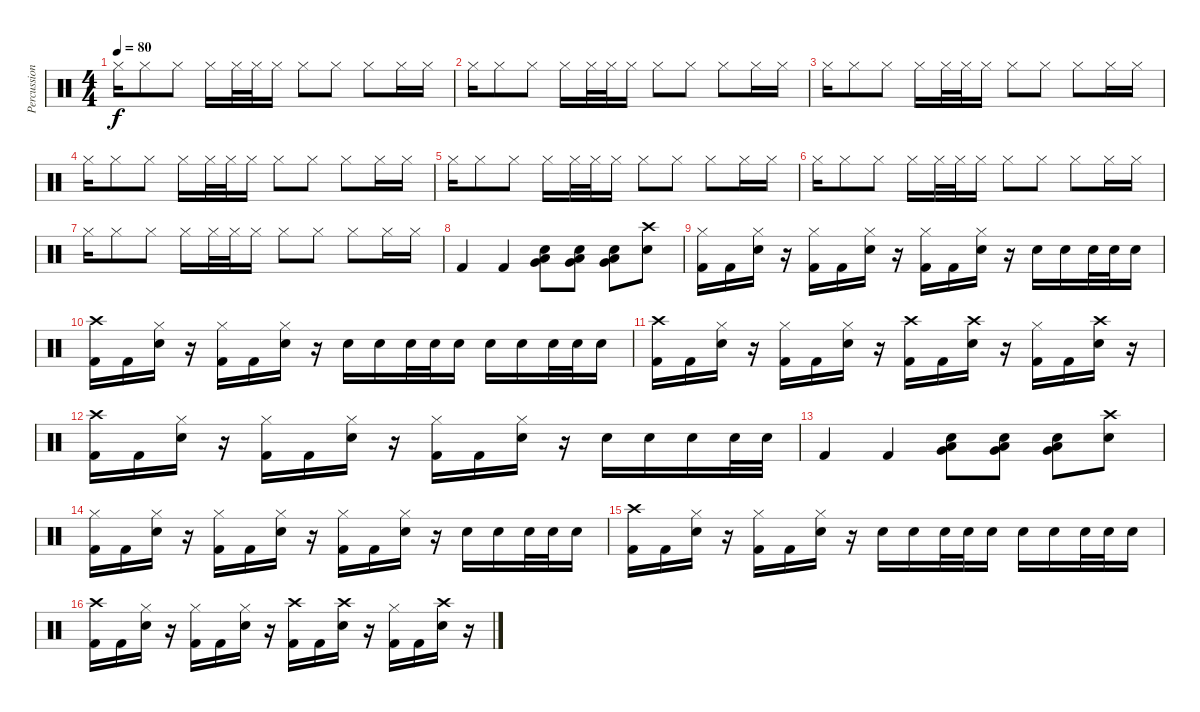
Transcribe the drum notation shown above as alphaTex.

\track ("Percussion" "Percussion") {instrument percussion}
\staff {score}
\articulation defaults
\ts (4 4)
\tempo 80
\clef neutral
\ks c "Hi-Hat (closed)".16{dy f} "Hi-Hat (closed)".8 "Hi-Hat (closed)".8 "Hi-Hat (closed)".16 "Hi-Hat (closed)".32 "Hi-Hat (closed)".32 "Hi-Hat (closed)".16 "Hi-Hat (closed)".8 "Hi-Hat (closed)".8 "Hi-Hat (closed)".8 "Hi-Hat (closed)".16 "Hi-Hat (closed)".16
|
"Hi-Hat (closed)".16 "Hi-Hat (closed)".8 "Hi-Hat (closed)".8 "Hi-Hat (closed)".16 "Hi-Hat (closed)".32 "Hi-Hat (closed)".32 "Hi-Hat (closed)".16 "Hi-Hat (closed)".8 "Hi-Hat (closed)".8 "Hi-Hat (closed)".8 "Hi-Hat (closed)".16 "Hi-Hat (closed)".16 |
"Hi-Hat (closed)".16 "Hi-Hat (closed)".8 "Hi-Hat (closed)".8 "Hi-Hat (closed)".16 "Hi-Hat (closed)".32 "Hi-Hat (closed)".32 "Hi-Hat (closed)".16 "Hi-Hat (closed)".8 "Hi-Hat (closed)".8 "Hi-Hat (closed)".8 "Hi-Hat (closed)".16 "Hi-Hat (closed)".16 |
"Hi-Hat (closed)".16 "Hi-Hat (closed)".8 "Hi-Hat (closed)".8 "Hi-Hat (closed)".16 "Hi-Hat (closed)".32 "Hi-Hat (closed)".32 "Hi-Hat (closed)".16 "Hi-Hat (closed)".8 "Hi-Hat (closed)".8 "Hi-Hat (closed)".8 "Hi-Hat (closed)".16 "Hi-Hat (closed)".16 |
"Hi-Hat (closed)".16 "Hi-Hat (closed)".8 "Hi-Hat (closed)".8 "Hi-Hat (closed)".16 "Hi-Hat (closed)".32 "Hi-Hat (closed)".32 "Hi-Hat (closed)".16 "Hi-Hat (closed)".8 "Hi-Hat (closed)".8 "Hi-Hat (closed)".8 "Hi-Hat (closed)".16 "Hi-Hat (closed)".16 |
"Hi-Hat (closed)".16 "Hi-Hat (closed)".8 "Hi-Hat (closed)".8 "Hi-Hat (closed)".16 "Hi-Hat (closed)".32 "Hi-Hat (closed)".32 "Hi-Hat (closed)".16 "Hi-Hat (closed)".8 "Hi-Hat (closed)".8 "Hi-Hat (closed)".8 "Hi-Hat (closed)".16 "Hi-Hat (closed)".16 |
"Hi-Hat (closed)".16 "Hi-Hat (closed)".8 "Hi-Hat (closed)".8 "Hi-Hat (closed)".16 "Hi-Hat (closed)".32 "Hi-Hat (closed)".32 "Hi-Hat (closed)".16 "Hi-Hat (closed)".8 "Hi-Hat (closed)".8 "Hi-Hat (closed)".8 "Hi-Hat (closed)".16 "Hi-Hat (closed)".16 |
"Kick (hit) 2".4 "Kick (hit) 2".4 ("Low Tom (hit)" "Very Low Tom (hit)" "Electric Snare (hit)").8 ("Low Tom (hit)" "Very Low Tom (hit)" "Electric Snare (hit)").8 ("Low Tom (hit)" "Very Low Tom (hit)" "Electric Snare (hit)").8 ("Crash high (hit)" "Electric Snare (hit)").8 |
("Hi-Hat (closed)" "Kick (hit) 2").16 "Kick (hit) 2".16 ("Hi-Hat (closed)" "Electric Snare (hit)").16 r.16 ("Hi-Hat (closed)" "Kick (hit) 2").16 "Kick (hit) 2".16 ("Hi-Hat (closed)" "Electric Snare (hit)").16 r.16 ("Hi-Hat (closed)" "Kick (hit) 2").16 "Kick (hit) 2".16 ("Hi-Hat (closed)" "Electric Snare (hit)").16 r.16 "Electric Snare (hit)".16 "Electric Snare (hit)".16 "Electric Snare (hit)".32 "Electric Snare (hit)".32 "Electric Snare (hit)".16 |
("Crash high (hit)" "Kick (hit) 2").16 "Kick (hit) 2".16 ("Hi-Hat (closed)" "Electric Snare (hit)").16 r.16 ("Hi-Hat (closed)" "Kick (hit) 2").16 "Kick (hit) 2".16 ("Hi-Hat (closed)" "Electric Snare (hit)").16 r.16 "Electric Snare (hit)".16 "Electric Snare (hit)".16 "Electric Snare (hit)".32 "Electric Snare (hit)".32 "Electric Snare (hit)".16 "Electric Snare (hit)".16 "Electric Snare (hit)".16 "Electric Snare (hit)".32 "Electric Snare (hit)".32 "Electric Snare (hit)".16 |
("Crash high (hit)" "Kick (hit) 2").16 "Kick (hit) 2".16 ("Hi-Hat (closed)" "Electric Snare (hit)").16 r.16 ("Hi-Hat (closed)" "Kick (hit) 2").16 "Kick (hit) 2".16 ("Hi-Hat (closed)" "Electric Snare (hit)").16 r.16 ("Crash high (hit)" "Kick (hit) 2").16 "Kick (hit) 2".16 ("Crash high (hit)" "Electric Snare (hit)").16 r.16 ("Hi-Hat (closed)" "Kick (hit) 2").16 "Kick (hit) 2".16 ("Crash high (hit)" "Electric Snare (hit)").16 r.16 |
("Crash high (hit)" "Kick (hit) 2").16 "Kick (hit) 2".16 ("Hi-Hat (closed)" "Electric Snare (hit)").16 r.16 ("Hi-Hat (closed)" "Kick (hit) 2").16 "Kick (hit) 2".16 ("Hi-Hat (closed)" "Electric Snare (hit)").16 r.16 ("Hi-Hat (closed)" "Kick (hit) 2").16 "Kick (hit) 2".16 ("Hi-Hat (closed)" "Electric Snare (hit)").16 r.16 "Electric Snare (hit)".16 "Electric Snare (hit)".16 "Electric Snare (hit)".16 "Electric Snare (hit)".32 "Electric Snare (hit)".32 |
"Kick (hit) 2".4 "Kick (hit) 2".4 ("Low Tom (hit)" "Very Low Tom (hit)" "Electric Snare (hit)").8 ("Low Tom (hit)" "Very Low Tom (hit)" "Electric Snare (hit)").8 ("Low Tom (hit)" "Very Low Tom (hit)" "Electric Snare (hit)").8 ("Crash high (hit)" "Electric Snare (hit)").8 |
("Hi-Hat (closed)" "Kick (hit) 2").16 "Kick (hit) 2".16 ("Hi-Hat (closed)" "Electric Snare (hit)").16 r.16 ("Hi-Hat (closed)" "Kick (hit) 2").16 "Kick (hit) 2".16 ("Hi-Hat (closed)" "Electric Snare (hit)").16 r.16 ("Hi-Hat (closed)" "Kick (hit) 2").16 "Kick (hit) 2".16 ("Hi-Hat (closed)" "Electric Snare (hit)").16 r.16 "Electric Snare (hit)".16 "Electric Snare (hit)".16 "Electric Snare (hit)".32 "Electric Snare (hit)".32 "Electric Snare (hit)".16 |
("Crash high (hit)" "Kick (hit) 2").16 "Kick (hit) 2".16 ("Hi-Hat (closed)" "Electric Snare (hit)").16 r.16 ("Hi-Hat (closed)" "Kick (hit) 2").16 "Kick (hit) 2".16 ("Hi-Hat (closed)" "Electric Snare (hit)").16 r.16 "Electric Snare (hit)".16 "Electric Snare (hit)".16 "Electric Snare (hit)".32 "Electric Snare (hit)".32 "Electric Snare (hit)".16 "Electric Snare (hit)".16 "Electric Snare (hit)".16 "Electric Snare (hit)".32 "Electric Snare (hit)".32 "Electric Snare (hit)".16 |
("Crash high (hit)" "Kick (hit) 2").16 "Kick (hit) 2".16 ("Hi-Hat (closed)" "Electric Snare (hit)").16 r.16 ("Hi-Hat (closed)" "Kick (hit) 2").16 "Kick (hit) 2".16 ("Hi-Hat (closed)" "Electric Snare (hit)").16 r.16 ("Crash high (hit)" "Kick (hit) 2").16 "Kick (hit) 2".16 ("Crash high (hit)" "Electric Snare (hit)").16 r.16 ("Hi-Hat (closed)" "Kick (hit) 2").16 "Kick (hit) 2".16 ("Crash high (hit)" "Electric Snare (hit)").16 r.16
